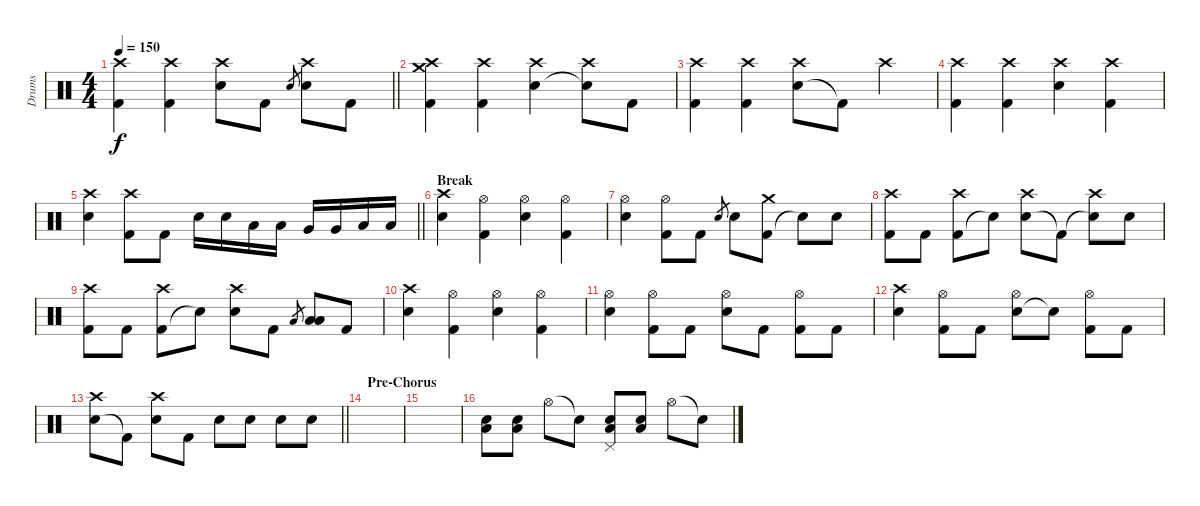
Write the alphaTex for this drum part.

\track ("Drums" "Drums") {instrument percussion}
\staff {score}
\articulation defaults
\ts (4 4)
\tempo 150
\clef neutral
\barLineRight lightlight
\ks c
("Kick (hit) 2" "Crash high (hit)").4{dy f} ("Kick (hit) 2" "Crash high (hit)").4 ("Electric Snare (hit)" "Crash high (hit)").8 "Kick (hit) 2".8 "Electric Snare (hit)".8{gr} ("Electric Snare (hit)" "Crash high (hit)").8 "Kick (hit) 2".8 |
("Kick (hit) 2" "Crash medium (hit)" "Crash high (hit)").4 ("Kick (hit) 2" "Crash high (hit)").4 ("Electric Snare (hit)" "Crash high (hit)").4 ("Snare (hit)"{t} "Crash high (hit)").8 "Kick (hit) 2".8 |
("Kick (hit) 2" "Crash high (hit)").4 ("Kick (hit) 2" "Crash high (hit)").4 ("Electric Snare (hit)" "Crash high (hit)").8 "Kick (hit) 2"{t}.8 "Crash high (hit)".4 |
("Kick (hit) 2" "Crash high (hit)").4 ("Kick (hit) 2" "Crash high (hit)").4 ("Electric Snare (hit)" "Crash high (hit)").4 ("Kick (hit) 2" "Crash high (hit)").4 |
\barLineRight lightlight
("Electric Snare (hit)" "Crash high (hit)").4 ("Kick (hit) 2" "Crash high (hit)").8 "Kick (hit) 2".8 "Electric Snare (hit)".16 "Electric Snare (hit)".16 "Low Tom (hit)".16 "Low Tom (hit)".16 "Very Low Tom (hit)".16 "Very Low Tom (hit)".16 "Low Floor Tom (hit)".16 "Low Floor Tom (hit)".16 |
\section ("" "Break")
("Electric Snare (hit)" "Crash high (hit)").4 ("Kick (hit) 2" "Hi-Hat (open)").4 ("Electric Snare (hit)" "Hi-Hat (open)").4 ("Kick (hit) 2" "Hi-Hat (open)").4 |
("Electric Snare (hit)" "Hi-Hat (open)").4 ("Kick (hit) 2" "Hi-Hat (open)").8 "Kick (hit) 2".8 "Electric Snare (hit)".8{gr} "Electric Snare (hit)".8 ("Kick (hit) 2" "Crash medium (hit)").8 "Snare (hit)"{t}.8 "Electric Snare (hit)".8 |
("Kick (hit) 2" "Crash high (hit)").8 "Kick (hit) 2".8 ("Kick (hit) 2" "Crash high (hit)").8 "Snare (hit)"{t}.8 ("Electric Snare (hit)" "Crash high (hit)").8 "Kick (hit) 2"{t}.8 ("Snare (hit)"{t} "Crash high (hit)").8 "Electric Snare (hit)".8 |
("Kick (hit) 2" "Crash high (hit)").8 "Kick (hit) 2".8 ("Kick (hit) 2" "Crash high (hit)").8 "Snare (hit)"{t}.8 ("Electric Snare (hit)" "Crash high (hit)").8 "Kick (hit) 2".8 "Low Tom (hit)".8{gr} ("Low Tom (hit)" "Low Floor Tom (hit)").8 "Kick (hit) 2".8 |
("Electric Snare (hit)" "Crash high (hit)").4 ("Kick (hit) 2" "Hi-Hat (open)").4 ("Electric Snare (hit)" "Hi-Hat (open)").4 ("Kick (hit) 2" "Hi-Hat (open)").4 |
("Electric Snare (hit)" "Hi-Hat (open)").4 ("Kick (hit) 2" "Hi-Hat (open)").8 "Kick (hit) 2".8 ("Electric Snare (hit)" "Hi-Hat (open)").8 "Kick (hit) 2".8 ("Kick (hit) 2" "Hi-Hat (open)").8 "Kick (hit) 2".8 |
("Electric Snare (hit)" "Crash high (hit)").4 ("Kick (hit) 2" "Hi-Hat (open)").8 "Kick (hit) 2".8 ("Electric Snare (hit)" "Hi-Hat (open)").8 "Snare (hit)"{t}.8 ("Kick (hit) 2" "Hi-Hat (open)").8 "Kick (hit) 2".8 |
\barLineRight lightlight
("Electric Snare (hit)" "Crash high (hit)").8 "Kick (hit) 2"{t}.8 ("Electric Snare (hit)" "Crash high (hit)").8 "Kick (hit) 2".8 "Electric Snare (hit)".8 "Electric Snare (hit)".8 "Electric Snare (hit)".8 "Electric Snare (hit)".8 |
\section ("" "Pre-Chorus")
|
|
("Electric Snare (hit)" "Low Floor Tom (hit)").8 ("Electric Snare (hit)" "Low Floor Tom (hit)").8 "Hi-Hat (open)".8 "Snare (hit)"{t}.8 ("Electric Snare (hit)" "Low Floor Tom (hit)" "Pedal Hi-Hat (hit)").8 ("Electric Snare (hit)" "Low Floor Tom (hit)").8 "Hi-Hat (open)".8 "Snare (hit)"{t}.8
